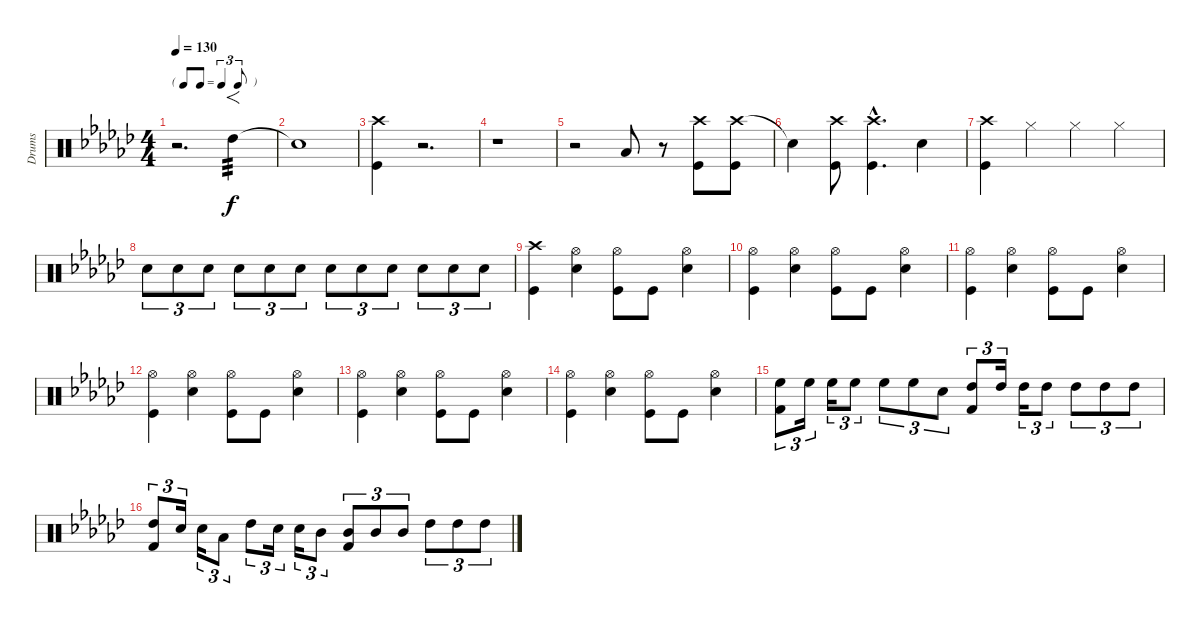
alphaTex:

\track ("Drums" "Drums") {instrument percussion}
\staff {score}
\articulation defaults
\ts (4 4)
\tf triplet8th
\tempo 130
\clef neutral
\ks gb
r.2{d dy f} "High Tom (hit)".4{f tp 3} |
"Snare (hit)"{t}.1 |
("Crash high (hit)" "Kick (hit)").4 r.2{d} |
r.1 |
r.2 "Low Tom (hit)".8 r.8 ("Crash high (hit)" "Kick (hit)").8 ("Crash high (hit)" "Kick (hit)").8 |
"Snare (hit)"{t}.4 ("Crash high (hit)" "Kick (hit)").8 ("Crash high (hit)"{hac} "Kick (hit)"{hac}).4{d} "Snare (hit) 2".4 |
("Crash high (hit)" "Kick (hit)").4 "Hi-Hat (closed)".4 "Hi-Hat (closed)".4 "Hi-Hat (closed)".4 |
"Snare (hit) 2".8{tu (3 2)} "Snare (hit) 2".8{tu (3 2)} "Snare (hit) 2".8{tu (3 2)} "Snare (hit) 2".8{tu (3 2)} "Snare (hit) 2".8{tu (3 2)} "Snare (hit) 2".8{tu (3 2)} "Snare (hit) 2".8{tu (3 2)} "Snare (hit) 2".8{tu (3 2)} "Snare (hit) 2".8{tu (3 2)} "Snare (hit) 2".8{tu (3 2)} "Snare (hit) 2".8{tu (3 2)} "Snare (hit) 2".8{tu (3 2)} |
("Crash high (hit)" "Kick (hit)").4 ("Hi-Hat (open)" "Snare (hit) 2").4 ("Hi-Hat (open)" "Kick (hit)").8 "Kick (hit)".8 ("Hi-Hat (open)" "Snare (hit) 2").4 |
("Hi-Hat (open)" "Kick (hit)").4 ("Hi-Hat (open)" "Snare (hit) 2").4 ("Hi-Hat (open)" "Kick (hit)").8 "Kick (hit)".8 ("Hi-Hat (open)" "Snare (hit) 2").4 |
("Hi-Hat (open)" "Kick (hit)").4 ("Hi-Hat (open)" "Snare (hit) 2").4 ("Hi-Hat (open)" "Kick (hit)").8 "Kick (hit)".8 ("Hi-Hat (open)" "Snare (hit) 2").4 |
("Hi-Hat (open)" "Kick (hit)").4 ("Hi-Hat (open)" "Snare (hit) 2").4 ("Hi-Hat (open)" "Kick (hit)").8 "Kick (hit)".8 ("Hi-Hat (open)" "Snare (hit) 2").4 |
("Hi-Hat (open)" "Kick (hit)").4 ("Hi-Hat (open)" "Snare (hit) 2").4 ("Hi-Hat (open)" "Kick (hit)").8 "Kick (hit)".8 ("Hi-Hat (open)" "Snare (hit) 2").4 |
("Hi-Hat (open)" "Kick (hit)").4 ("Hi-Hat (open)" "Snare (hit) 2").4 ("Hi-Hat (open)" "Kick (hit)").8 "Kick (hit)".8 ("Hi-Hat (open)" "Snare (hit) 2").4 |
("High Floor Tom (hit)" "Kick (hit) 2").8{tu (3 2)} "High Floor Tom (hit)".16{tu (3 2)} "High Floor Tom (hit)".16{tu (3 2)} "High Floor Tom (hit)".8{tu (3 2)} "High Floor Tom (hit)".8{tu (3 2)} "High Floor Tom (hit)".8{tu (3 2)} "Snare (hit) 2".8{tu (3 2)} ("High Tom (hit)" "Kick (hit) 2").8{tu (3 2)} "High Tom (hit)".16{tu (3 2)} "High Tom (hit)".16{tu (3 2)} "High Tom (hit)".8{tu (3 2)} "High Tom (hit)".8{tu (3 2)} "High Tom (hit)".8{tu (3 2)} "High Tom (hit)".8{tu (3 2)} |
("High Tom (hit)" "Kick (hit) 2").8{tu (3 2)} "Snare (hit) 2".16{tu (3 2)} "Snare (hit) 2".16{tu (3 2)} "Low Tom (hit)".8{tu (3 2)} "High Tom (hit)".8{tu (3 2)} "Snare (hit) 2".16{tu (3 2)} "Snare (hit) 2".16{tu (3 2)} "Mid Tom (hit)".8{tu (3 2)} ("Mid Tom (hit)" "Kick (hit) 2").8{tu (3 2)} "Mid Tom (hit)".8{tu (3 2)} "Mid Tom (hit)".8{tu (3 2)} "High Tom (hit)".8{tu (3 2)} "High Tom (hit)".8{tu (3 2)} "High Tom (hit)".8{tu (3 2)}
